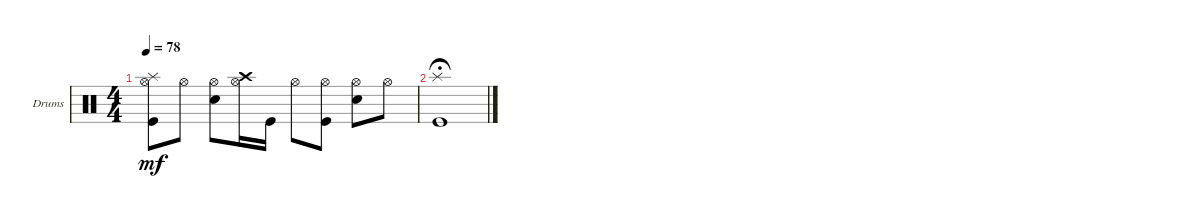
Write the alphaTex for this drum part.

\defaultSystemsLayout 4
\bracketExtendMode groupsimilarinstruments
\firstSystemTrackNameOrientation horizontal
\otherSystemsTrackNameOrientation horizontal
\track ("Drumkit" "Drums") {instrument percussion}
\staff {score}
\articulation defaults
\ts (4 4)
\tempo 78
\clef neutral
\ks c
("Kick (hit)" "Hi-Hat (open)" "Splash (hit)").8{dy mf} "Hi-Hat (open)".8 ("Hi-Hat (open)" "Snare (hit) 2").8 ("Hi-Hat (open)" "Crash high (hit)").16 "Kick (hit)".16 "Hi-Hat (open)".8 ("Kick (hit)" "Hi-Hat (open)").8 ("Hi-Hat (open)" "Snare (hit) 2").8 "Hi-Hat (open)".8 |
("Kick (hit)" "Splash (hit)").1{fermata (medium 1)}
